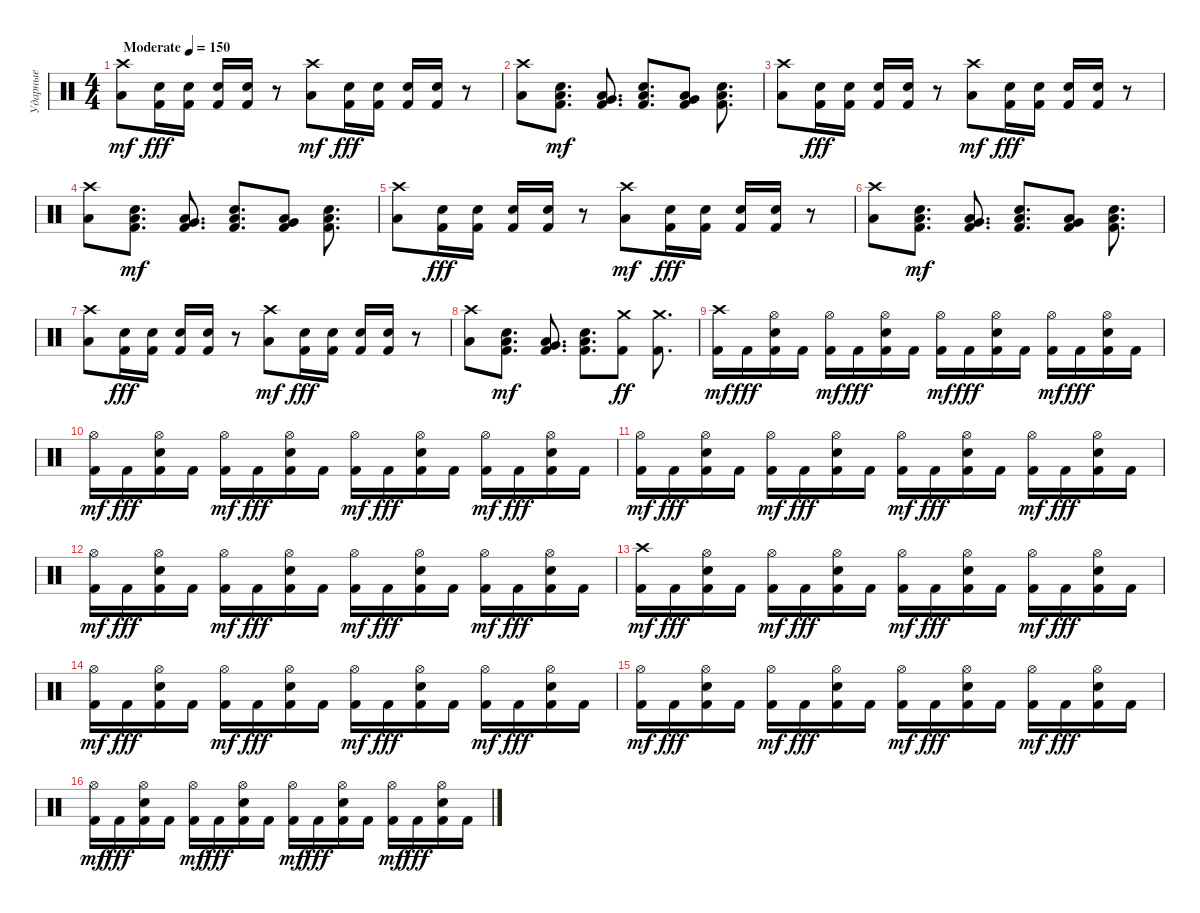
\track ("Ударные" "Ударные") {instrument percussion}
\staff {score}
\articulation defaults
\ts (4 4)
\tempo (150 "Moderate")
\clef neutral
\ks c
("Low Floor Tom (hit)" "Crash high (hit)").8{dy mf} ("Kick (hit) 2" "Snare (hit) 2").16{dy fff} ("Kick (hit) 2" "Snare (hit) 2").16 ("Kick (hit) 2" "Snare (hit) 2").16 ("Kick (hit) 2" "Snare (hit) 2").16 r.8 ("Low Floor Tom (hit)" "Crash high (hit)").8{dy mf} ("Kick (hit) 2" "Snare (hit) 2").16{dy fff} ("Kick (hit) 2" "Snare (hit) 2").16 ("Kick (hit) 2" "Snare (hit) 2").16 ("Kick (hit) 2" "Snare (hit) 2").16 r.8 |
("Low Floor Tom (hit)" "Crash high (hit)").8 ("Kick (hit) 2" "Low Floor Tom (hit)" "Snare (hit) 2").8{d dy mf} ("Kick (hit) 2" "Very Low Tom (hit)" "Low Floor Tom (hit)").8{d} ("Kick (hit) 2" "Low Tom (hit)" "Snare (hit) 2").8{d} ("Kick (hit) 2" "Low Floor Tom (hit)" "Very Low Tom (hit)").8 ("Kick (hit) 2" "Low Floor Tom (hit)" "Snare (hit) 2").8{d} |
("Low Floor Tom (hit)" "Crash high (hit)").8 ("Kick (hit) 2" "Snare (hit) 2").16{dy fff} ("Kick (hit) 2" "Snare (hit) 2").16 ("Kick (hit) 2" "Snare (hit) 2").16 ("Kick (hit) 2" "Snare (hit) 2").16 r.8 ("Low Floor Tom (hit)" "Crash high (hit)").8{dy mf} ("Kick (hit) 2" "Snare (hit) 2").16{dy fff} ("Kick (hit) 2" "Snare (hit) 2").16 ("Kick (hit) 2" "Snare (hit) 2").16 ("Kick (hit) 2" "Snare (hit) 2").16 r.8 |
("Low Floor Tom (hit)" "Crash high (hit)").8 ("Kick (hit) 2" "Low Floor Tom (hit)" "Snare (hit) 2").8{d dy mf} ("Kick (hit) 2" "Very Low Tom (hit)" "Low Floor Tom (hit)").8{d} ("Kick (hit) 2" "Low Tom (hit)" "Snare (hit) 2").8{d} ("Kick (hit) 2" "Low Floor Tom (hit)" "Very Low Tom (hit)").8 ("Kick (hit) 2" "Low Floor Tom (hit)" "Snare (hit) 2").8{d} |
("Low Floor Tom (hit)" "Crash high (hit)").8 ("Kick (hit) 2" "Snare (hit) 2").16{dy fff} ("Kick (hit) 2" "Snare (hit) 2").16 ("Kick (hit) 2" "Snare (hit) 2").16 ("Kick (hit) 2" "Snare (hit) 2").16 r.8 ("Low Floor Tom (hit)" "Crash high (hit)").8{dy mf} ("Kick (hit) 2" "Snare (hit) 2").16{dy fff} ("Kick (hit) 2" "Snare (hit) 2").16 ("Kick (hit) 2" "Snare (hit) 2").16 ("Kick (hit) 2" "Snare (hit) 2").16 r.8 |
("Low Floor Tom (hit)" "Crash high (hit)").8 ("Kick (hit) 2" "Low Floor Tom (hit)" "Snare (hit) 2").8{d dy mf} ("Kick (hit) 2" "Very Low Tom (hit)" "Low Floor Tom (hit)").8{d} ("Kick (hit) 2" "Low Tom (hit)" "Snare (hit) 2").8{d} ("Kick (hit) 2" "Low Floor Tom (hit)" "Very Low Tom (hit)").8 ("Kick (hit) 2" "Low Floor Tom (hit)" "Snare (hit) 2").8{d} |
("Low Floor Tom (hit)" "Crash high (hit)").8 ("Kick (hit) 2" "Snare (hit) 2").16{dy fff} ("Kick (hit) 2" "Snare (hit) 2").16 ("Kick (hit) 2" "Snare (hit) 2").16 ("Kick (hit) 2" "Snare (hit) 2").16 r.8 ("Low Floor Tom (hit)" "Crash high (hit)").8{dy mf} ("Kick (hit) 2" "Snare (hit) 2").16{dy fff} ("Kick (hit) 2" "Snare (hit) 2").16 ("Kick (hit) 2" "Snare (hit) 2").16 ("Kick (hit) 2" "Snare (hit) 2").16 r.8 |
("Low Floor Tom (hit)" "Crash high (hit)").8 ("Kick (hit) 2" "Low Floor Tom (hit)" "Snare (hit) 2").8{d dy mf} ("Kick (hit) 2" "Very Low Tom (hit)" "Low Floor Tom (hit)").8{d} ("Kick (hit) 2" "Low Tom (hit)" "Snare (hit) 2").8{d} ("Kick (hit) 2" "Crash medium (hit)").8{dy ff} ("Kick (hit) 2" "Crash medium (hit)").8{d} |
("Kick (hit) 2" "Crash high (hit)").16{dy mf} "Kick (hit) 2".16{dy fff} ("Kick (hit) 2" "Hi-Hat (open)" "Snare (hit) 2").16 "Kick (hit) 2".16 ("Kick (hit) 2" "Hi-Hat (open)").16{dy mf} "Kick (hit) 2".16{dy fff} ("Kick (hit) 2" "Hi-Hat (open)" "Snare (hit) 2").16 "Kick (hit) 2".16 ("Kick (hit) 2" "Hi-Hat (open)").16{dy mf} "Kick (hit) 2".16{dy fff} ("Kick (hit) 2" "Hi-Hat (open)" "Snare (hit) 2").16 "Kick (hit) 2".16 ("Kick (hit) 2" "Hi-Hat (open)").16{dy mf} "Kick (hit) 2".16{dy fff} ("Kick (hit) 2" "Hi-Hat (open)" "Snare (hit) 2").16 "Kick (hit) 2".16 |
("Kick (hit) 2" "Hi-Hat (open)").16{dy mf} "Kick (hit) 2".16{dy fff} ("Kick (hit) 2" "Hi-Hat (open)" "Snare (hit) 2").16 "Kick (hit) 2".16 ("Kick (hit) 2" "Hi-Hat (open)").16{dy mf} "Kick (hit) 2".16{dy fff} ("Kick (hit) 2" "Hi-Hat (open)" "Snare (hit) 2").16 "Kick (hit) 2".16 ("Kick (hit) 2" "Hi-Hat (open)").16{dy mf} "Kick (hit) 2".16{dy fff} ("Kick (hit) 2" "Hi-Hat (open)" "Snare (hit) 2").16 "Kick (hit) 2".16 ("Kick (hit) 2" "Hi-Hat (open)").16{dy mf} "Kick (hit) 2".16{dy fff} ("Kick (hit) 2" "Hi-Hat (open)" "Snare (hit) 2").16 "Kick (hit) 2".16 |
("Kick (hit) 2" "Hi-Hat (open)").16{dy mf} "Kick (hit) 2".16{dy fff} ("Kick (hit) 2" "Hi-Hat (open)" "Snare (hit) 2").16 "Kick (hit) 2".16 ("Kick (hit) 2" "Hi-Hat (open)").16{dy mf} "Kick (hit) 2".16{dy fff} ("Kick (hit) 2" "Hi-Hat (open)" "Snare (hit) 2").16 "Kick (hit) 2".16 ("Kick (hit) 2" "Hi-Hat (open)").16{dy mf} "Kick (hit) 2".16{dy fff} ("Kick (hit) 2" "Hi-Hat (open)" "Snare (hit) 2").16 "Kick (hit) 2".16 ("Kick (hit) 2" "Hi-Hat (open)").16{dy mf} "Kick (hit) 2".16{dy fff} ("Kick (hit) 2" "Hi-Hat (open)" "Snare (hit) 2").16 "Kick (hit) 2".16 |
("Kick (hit) 2" "Hi-Hat (open)").16{dy mf} "Kick (hit) 2".16{dy fff} ("Kick (hit) 2" "Hi-Hat (open)" "Snare (hit) 2").16 "Kick (hit) 2".16 ("Kick (hit) 2" "Hi-Hat (open)").16{dy mf} "Kick (hit) 2".16{dy fff} ("Kick (hit) 2" "Hi-Hat (open)" "Snare (hit) 2").16 "Kick (hit) 2".16 ("Kick (hit) 2" "Hi-Hat (open)").16{dy mf} "Kick (hit) 2".16{dy fff} ("Kick (hit) 2" "Hi-Hat (open)" "Snare (hit) 2").16 "Kick (hit) 2".16 ("Kick (hit) 2" "Hi-Hat (open)").16{dy mf} "Kick (hit) 2".16{dy fff} ("Kick (hit) 2" "Hi-Hat (open)" "Snare (hit) 2").16 "Kick (hit) 2".16 |
("Kick (hit) 2" "Crash high (hit)").16{dy mf} "Kick (hit) 2".16{dy fff} ("Kick (hit) 2" "Hi-Hat (open)" "Snare (hit) 2").16 "Kick (hit) 2".16 ("Kick (hit) 2" "Hi-Hat (open)").16{dy mf} "Kick (hit) 2".16{dy fff} ("Kick (hit) 2" "Hi-Hat (open)" "Snare (hit) 2").16 "Kick (hit) 2".16 ("Kick (hit) 2" "Hi-Hat (open)").16{dy mf} "Kick (hit) 2".16{dy fff} ("Kick (hit) 2" "Hi-Hat (open)" "Snare (hit) 2").16 "Kick (hit) 2".16 ("Kick (hit) 2" "Hi-Hat (open)").16{dy mf} "Kick (hit) 2".16{dy fff} ("Kick (hit) 2" "Hi-Hat (open)" "Snare (hit) 2").16 "Kick (hit) 2".16 |
("Kick (hit) 2" "Hi-Hat (open)").16{dy mf} "Kick (hit) 2".16{dy fff} ("Kick (hit) 2" "Hi-Hat (open)" "Snare (hit) 2").16 "Kick (hit) 2".16 ("Kick (hit) 2" "Hi-Hat (open)").16{dy mf} "Kick (hit) 2".16{dy fff} ("Kick (hit) 2" "Hi-Hat (open)" "Snare (hit) 2").16 "Kick (hit) 2".16 ("Kick (hit) 2" "Hi-Hat (open)").16{dy mf} "Kick (hit) 2".16{dy fff} ("Kick (hit) 2" "Hi-Hat (open)" "Snare (hit) 2").16 "Kick (hit) 2".16 ("Kick (hit) 2" "Hi-Hat (open)").16{dy mf} "Kick (hit) 2".16{dy fff} ("Kick (hit) 2" "Hi-Hat (open)" "Snare (hit) 2").16 "Kick (hit) 2".16 |
("Kick (hit) 2" "Hi-Hat (open)").16{dy mf} "Kick (hit) 2".16{dy fff} ("Kick (hit) 2" "Hi-Hat (open)" "Snare (hit) 2").16 "Kick (hit) 2".16 ("Kick (hit) 2" "Hi-Hat (open)").16{dy mf} "Kick (hit) 2".16{dy fff} ("Kick (hit) 2" "Hi-Hat (open)" "Snare (hit) 2").16 "Kick (hit) 2".16 ("Kick (hit) 2" "Hi-Hat (open)").16{dy mf} "Kick (hit) 2".16{dy fff} ("Kick (hit) 2" "Hi-Hat (open)" "Snare (hit) 2").16 "Kick (hit) 2".16 ("Kick (hit) 2" "Hi-Hat (open)").16{dy mf} "Kick (hit) 2".16{dy fff} ("Kick (hit) 2" "Hi-Hat (open)" "Snare (hit) 2").16 "Kick (hit) 2".16 |
("Kick (hit) 2" "Hi-Hat (open)").16{dy mf} "Kick (hit) 2".16{dy fff} ("Kick (hit) 2" "Hi-Hat (open)" "Snare (hit) 2").16 "Kick (hit) 2".16 ("Kick (hit) 2" "Hi-Hat (open)").16{dy mf} "Kick (hit) 2".16{dy fff} ("Kick (hit) 2" "Hi-Hat (open)" "Snare (hit) 2").16 "Kick (hit) 2".16 ("Kick (hit) 2" "Hi-Hat (open)").16{dy mf} "Kick (hit) 2".16{dy fff} ("Kick (hit) 2" "Hi-Hat (open)" "Snare (hit) 2").16 "Kick (hit) 2".16 ("Kick (hit) 2" "Hi-Hat (open)").16{dy mf} "Kick (hit) 2".16{dy fff} ("Kick (hit) 2" "Hi-Hat (open)" "Snare (hit) 2").16 "Kick (hit) 2".16
